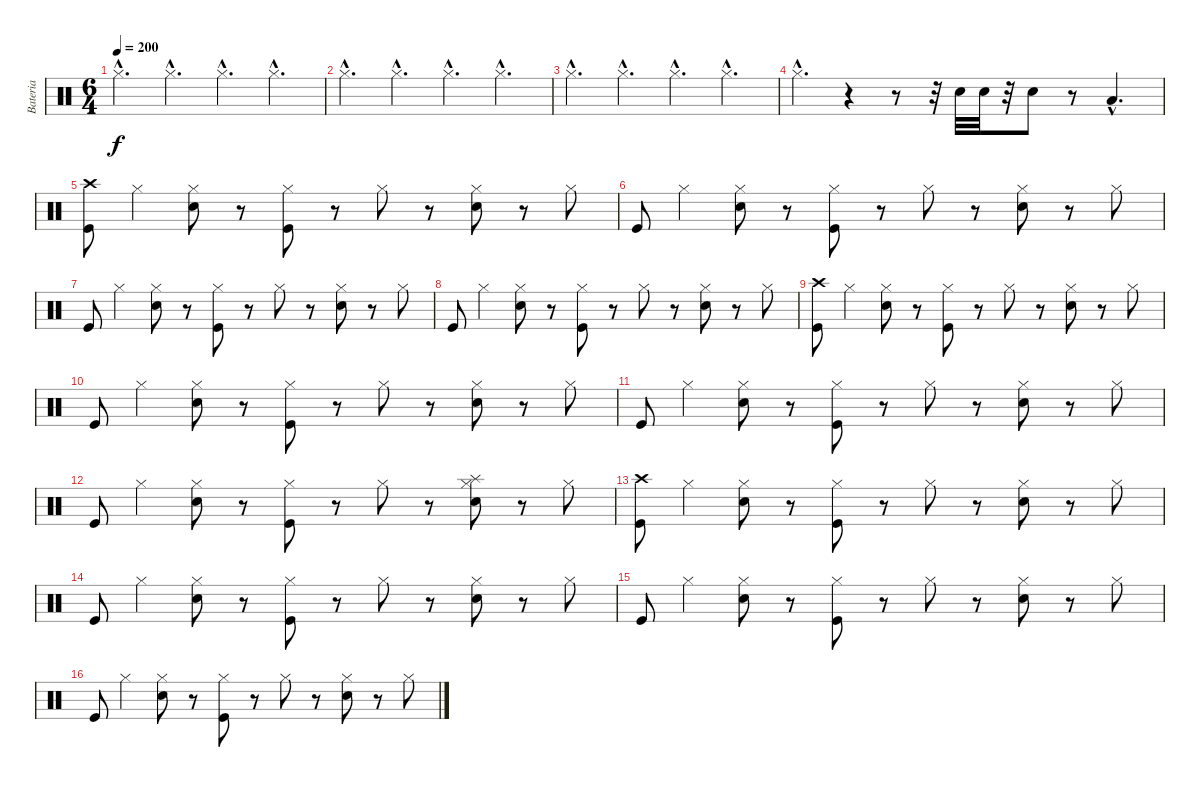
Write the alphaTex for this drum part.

\track ("Bateria" "Bateria") {instrument percussion}
\staff {score}
\articulation defaults
\ts (6 4)
\tempo 200
\clef neutral
\ks c "Hi-Hat (closed)"{hac}.4{d dy f} "Hi-Hat (closed)"{hac}.4{d} "Hi-Hat (closed)"{hac}.4{d} "Hi-Hat (closed)"{hac}.4{d}
|
"Hi-Hat (closed)"{hac}.4{d} "Hi-Hat (closed)"{hac}.4{d} "Hi-Hat (closed)"{hac}.4{d} "Hi-Hat (closed)"{hac}.4{d} |
"Hi-Hat (closed)"{hac}.4{d} "Hi-Hat (closed)"{hac}.4{d} "Hi-Hat (closed)"{hac}.4{d} "Hi-Hat (closed)"{hac}.4{d} |
"Hi-Hat (closed)"{hac}.4{d} r.4 r.8 r.32 "Electric Snare (hit)".32 "Electric Snare (hit)".32 r.32 "Electric Snare (hit)".8 r.8 "Low Tom (hit)"{hac}.4{d} |
("Kick (hit)" "Crash high (hit)").8 "Hi-Hat (closed)".4 ("Hi-Hat (closed)" "Electric Snare (hit)").8 r.8 ("Hi-Hat (closed)" "Kick (hit)").8 r.8 "Hi-Hat (closed)".8 r.8 ("Hi-Hat (closed)" "Electric Snare (hit)").8 r.8 "Hi-Hat (closed)".8 |
"Kick (hit)".8 "Hi-Hat (closed)".4 ("Hi-Hat (closed)" "Electric Snare (hit)").8 r.8 ("Hi-Hat (closed)" "Kick (hit)").8 r.8 "Hi-Hat (closed)".8 r.8 ("Hi-Hat (closed)" "Electric Snare (hit)").8 r.8 "Hi-Hat (closed)".8 |
"Kick (hit)".8 "Hi-Hat (closed)".4 ("Hi-Hat (closed)" "Electric Snare (hit)").8 r.8 ("Hi-Hat (closed)" "Kick (hit)").8 r.8 "Hi-Hat (closed)".8 r.8 ("Hi-Hat (closed)" "Electric Snare (hit)").8 r.8 "Hi-Hat (closed)".8 |
"Kick (hit)".8 "Hi-Hat (closed)".4 ("Hi-Hat (closed)" "Electric Snare (hit)").8 r.8 ("Hi-Hat (closed)" "Kick (hit)").8 r.8 "Hi-Hat (closed)".8 r.8 ("Hi-Hat (closed)" "Electric Snare (hit)").8 r.8 "Hi-Hat (closed)".8 |
("Crash high (hit)" "Kick (hit)").8 "Hi-Hat (closed)".4 ("Hi-Hat (closed)" "Electric Snare (hit)").8 r.8 ("Hi-Hat (closed)" "Kick (hit)").8 r.8 "Hi-Hat (closed)".8 r.8 ("Hi-Hat (closed)" "Electric Snare (hit)").8 r.8 "Hi-Hat (closed)".8 |
"Kick (hit)".8 "Hi-Hat (closed)".4 ("Hi-Hat (closed)" "Electric Snare (hit)").8 r.8 ("Hi-Hat (closed)" "Kick (hit)").8 r.8 "Hi-Hat (closed)".8 r.8 ("Hi-Hat (closed)" "Electric Snare (hit)").8 r.8 "Hi-Hat (closed)".8 |
"Kick (hit)".8 "Hi-Hat (closed)".4 ("Hi-Hat (closed)" "Electric Snare (hit)").8 r.8 ("Hi-Hat (closed)" "Kick (hit)").8 r.8 "Hi-Hat (closed)".8 r.8 ("Hi-Hat (closed)" "Electric Snare (hit)").8 r.8 "Hi-Hat (closed)".8 |
"Kick (hit)".8 "Hi-Hat (closed)".4 ("Hi-Hat (closed)" "Electric Snare (hit)").8 r.8 ("Hi-Hat (closed)" "Kick (hit)").8 r.8 "Hi-Hat (closed)".8 r.8 ("Splash (hit)" "Hi-Hat (closed)" "Electric Snare (hit)").8 r.8 "Hi-Hat (closed)".8 |
("Crash high (hit)" "Kick (hit)").8 "Hi-Hat (closed)".4 ("Hi-Hat (closed)" "Electric Snare (hit)").8 r.8 ("Hi-Hat (closed)" "Kick (hit)").8 r.8 "Hi-Hat (closed)".8 r.8 ("Hi-Hat (closed)" "Electric Snare (hit)").8 r.8 "Hi-Hat (closed)".8 |
"Kick (hit)".8 "Hi-Hat (closed)".4 ("Hi-Hat (closed)" "Electric Snare (hit)").8 r.8 ("Hi-Hat (closed)" "Kick (hit)").8 r.8 "Hi-Hat (closed)".8 r.8 ("Hi-Hat (closed)" "Electric Snare (hit)").8 r.8 "Hi-Hat (closed)".8 |
"Kick (hit)".8 "Hi-Hat (closed)".4 ("Hi-Hat (closed)" "Electric Snare (hit)").8 r.8 ("Hi-Hat (closed)" "Kick (hit)").8 r.8 "Hi-Hat (closed)".8 r.8 ("Hi-Hat (closed)" "Electric Snare (hit)").8 r.8 "Hi-Hat (closed)".8 |
"Kick (hit)".8 "Hi-Hat (closed)".4 ("Hi-Hat (closed)" "Electric Snare (hit)").8 r.8 ("Hi-Hat (closed)" "Kick (hit)").8 r.8 "Hi-Hat (closed)".8 r.8 ("Hi-Hat (closed)" "Electric Snare (hit)").8 r.8 "Hi-Hat (closed)".8
